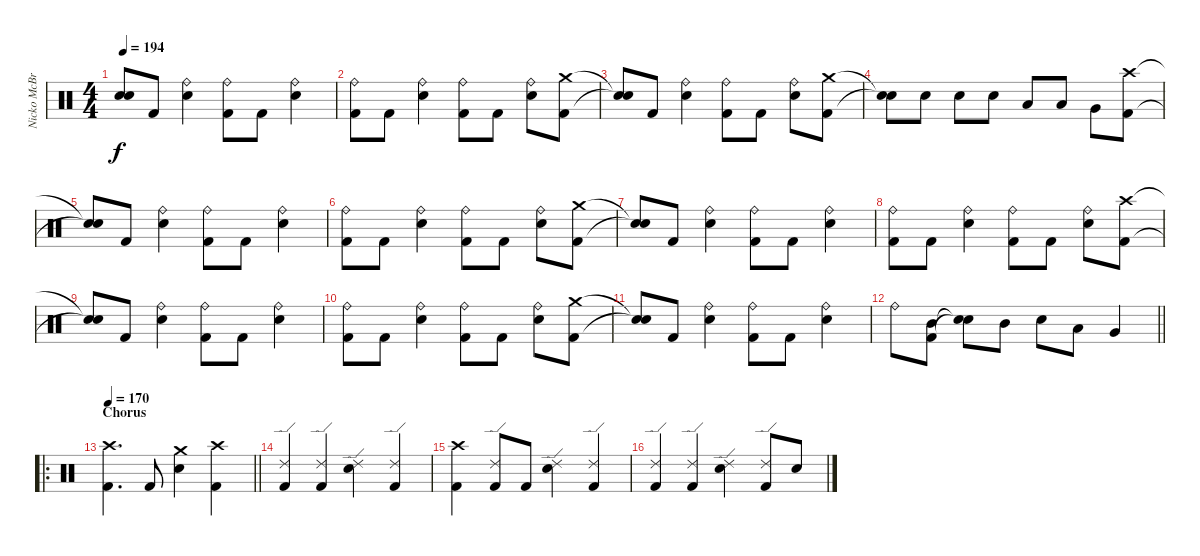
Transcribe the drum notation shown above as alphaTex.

\track ("Nicko McBrain" "Nicko McBr") {instrument percussion}
\staff {score}
\articulation defaults
\ts (4 4)
\tempo 194
\clef neutral
\ks c
("Snare (hit)"{t} "Snare (hit)"{t}).8{dy f} "Kick (hit) 2".8 ("Ride (bell)" "Electric Snare (hit)").4 ("Ride (bell)" "Kick (hit) 2").8 "Kick (hit) 2".8 ("Ride (bell)" "Electric Snare (hit)").4 |
("Ride (bell)" "Kick (hit) 2").8 "Kick (hit) 2".8 ("Ride (bell)" "Electric Snare (hit)").4 ("Ride (bell)" "Kick (hit) 2").8 "Kick (hit) 2".8 ("Ride (bell)" "Electric Snare (hit)").8 ("Crash medium (hit)" "Kick (hit) 2").8 |
("Snare (hit)"{t} "Snare (hit)"{t}).8 "Kick (hit) 2".8 ("Ride (bell)" "Electric Snare (hit)").4 ("Ride (bell)" "Kick (hit) 2").8 "Kick (hit) 2".8 ("Ride (bell)" "Electric Snare (hit)").8 ("Crash medium (hit)" "Kick (hit) 2").8 |
("Snare (hit)"{t} "Snare (hit)"{t}).8 "Electric Snare (hit)".8 "Electric Snare (hit)".8 "Electric Snare (hit)".8 "Low Tom (hit)".8 "Low Tom (hit)".8 "Very Low Tom (hit)".8 ("Crash high (hit)" "Kick (hit) 2").8 |
("Snare (hit)"{t} "Snare (hit)"{t}).8 "Kick (hit) 2".8 ("Ride (bell)" "Electric Snare (hit)").4 ("Ride (bell)" "Kick (hit) 2").8 "Kick (hit) 2".8 ("Ride (bell)" "Electric Snare (hit)").4 |
("Ride (bell)" "Kick (hit) 2").8 "Kick (hit) 2".8 ("Ride (bell)" "Electric Snare (hit)").4 ("Ride (bell)" "Kick (hit) 2").8 "Kick (hit) 2".8 ("Ride (bell)" "Electric Snare (hit)").8 ("Crash medium (hit)" "Kick (hit) 2").8 |
("Snare (hit)"{t} "Snare (hit)"{t}).8 "Kick (hit) 2".8 ("Ride (bell)" "Electric Snare (hit)").4 ("Ride (bell)" "Kick (hit) 2").8 "Kick (hit) 2".8 ("Ride (bell)" "Electric Snare (hit)").4 |
("Ride (bell)" "Kick (hit) 2").8 "Kick (hit) 2".8 ("Ride (bell)" "Electric Snare (hit)").4 ("Ride (bell)" "Kick (hit) 2").8 "Kick (hit) 2".8 ("Ride (bell)" "Electric Snare (hit)").8 ("Crash high (hit)" "Kick (hit) 2").8 |
("Snare (hit)"{t} "Snare (hit)"{t}).8 "Kick (hit) 2".8 ("Ride (bell)" "Electric Snare (hit)").4 ("Ride (bell)" "Kick (hit) 2").8 "Kick (hit) 2".8 ("Ride (bell)" "Electric Snare (hit)").4 |
("Ride (bell)" "Kick (hit) 2").8 "Kick (hit) 2".8 ("Ride (bell)" "Electric Snare (hit)").4 ("Ride (bell)" "Kick (hit) 2").8 "Kick (hit) 2".8 ("Ride (bell)" "Electric Snare (hit)").8 ("Crash medium (hit)" "Kick (hit) 2").8 |
("Snare (hit)"{t} "Snare (hit)"{t}).8 "Kick (hit) 2".8 ("Ride (bell)" "Electric Snare (hit)").4 ("Ride (bell)" "Kick (hit) 2").8 "Kick (hit) 2".8 ("Ride (bell)" "Electric Snare (hit)").4 |
\barLineRight lightlight "Ride (bell)".8
("Mid Tom (hit)" "Kick (hit) 2").8 ("Snare (hit)"{t} "Snare (hit)"{t}).8 "Mid Tom (hit)".8 "Electric Snare (hit)".8 "Low Tom (hit)".8 "Very Low Tom (hit)".4 |
\ro
\section ("" "Chorus")
\tempo 170
\barLineRight lightlight
("Crash high (hit)" "Kick (hit) 2").4{d} "Kick (hit) 2".8 ("Crash medium (hit)" "Electric Snare (hit)").4 ("Crash high (hit)" "Kick (hit) 2").4 |
("Ride (edge) 2" "Kick (hit) 2").4 ("Ride (edge) 2" "Kick (hit) 2").4 ("Ride (edge) 2" "Electric Snare (hit)").4 ("Ride (edge) 2" "Kick (hit) 2").4 |
("Crash high (hit)" "Kick (hit) 2").4 ("Ride (edge) 2" "Kick (hit) 2").8 "Kick (hit) 2".8 ("Ride (edge) 2" "Electric Snare (hit)").4 ("Ride (edge) 2" "Kick (hit) 2").4 |
("Ride (edge) 2" "Kick (hit) 2").4 ("Ride (edge) 2" "Kick (hit) 2").4 ("Ride (edge) 2" "Electric Snare (hit)").4 ("Ride (edge) 2" "Kick (hit) 2").8 "Electric Snare (hit)".8
